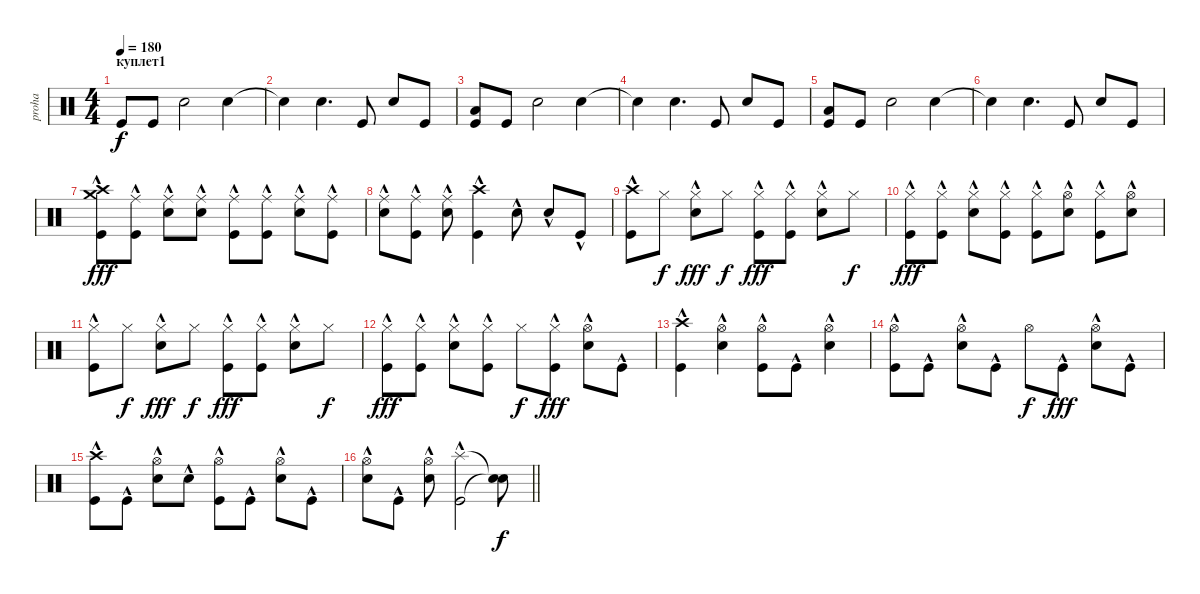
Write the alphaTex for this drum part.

\track ("proha" "proha") {instrument percussion}
\staff {score}
\articulation defaults
\ts (4 4)
\section ("" "куплет1")
\tempo 180
\clef neutral
\ks c "Kick (hit)".8{dy f} "Kick (hit)".8 "Snare (hit) 2".2 "Snare (hit) 2".4
|
"Snare (hit)"{t}.4 "Snare (hit) 2".4{d} "Kick (hit)".8 "Snare (hit) 2".8 "Kick (hit)".8 |
("Kick (hit)" "Low Floor Tom (hit)").8 "Kick (hit)".8 "Snare (hit) 2".2 "Snare (hit) 2".4 |
"Snare (hit)"{t}.4 "Snare (hit) 2".4{d} "Kick (hit)".8 "Snare (hit) 2".8 "Kick (hit)".8 |
("Kick (hit)" "Low Floor Tom (hit)").8 "Kick (hit)".8 "Snare (hit) 2".2 "Snare (hit) 2".4 |
"Snare (hit)"{t}.4 "Snare (hit) 2".4{d} "Kick (hit)".8 "Snare (hit) 2".8 "Kick (hit)".8 |
("Kick (hit)"{hac} "Crash high (hit)" "Crash medium (hit)").8{dy fff} ("Kick (hit)"{hac} "Ride (middle)").8 ("Snare (hit) 2"{hac} "Ride (middle)").8 ("Snare (hit) 2"{hac} "Ride (middle)").8 ("Kick (hit)"{hac} "Ride (middle)").8 ("Kick (hit)"{hac} "Ride (middle)").8 ("Snare (hit) 2"{hac} "Ride (middle)").8 ("Kick (hit)"{hac} "Ride (middle)").8 |
("Snare (hit) 2"{hac} "Ride (middle)").8 ("Kick (hit)"{hac} "Ride (middle)").8 ("Snare (hit) 2"{hac} "Ride (middle)").8 ("Kick (hit)"{hac} "Crash high (hit)").4 "Snare (hit) 2"{hac}.8 "Snare (hit) 2"{hac}.8 "Kick (hit)"{hac}.8 |
("Crash high (hit)" "Kick (hit)"{hac}).8 "Hi-Hat (closed)".8{dy f} ("Hi-Hat (closed)" "Snare (hit) 2"{hac}).8{dy fff} "Hi-Hat (closed)".8{dy f} ("Hi-Hat (closed)" "Kick (hit)"{hac}).8{dy fff} ("Hi-Hat (closed)" "Kick (hit)"{hac}).8 ("Hi-Hat (closed)" "Snare (hit) 2"{hac}).8 "Hi-Hat (closed)".8{dy f} |
("Hi-Hat (closed)" "Kick (hit)"{hac}).8{dy fff} ("Hi-Hat (closed)" "Kick (hit)"{hac}).8 ("Hi-Hat (closed)" "Snare (hit) 2"{hac}).8 ("Hi-Hat (closed)" "Kick (hit)"{hac}).8 ("Hi-Hat (closed)" "Kick (hit)"{hac}).8 ("Hi-Hat (open)" "Snare (hit) 2"{hac}).8 ("Hi-Hat (closed)" "Kick (hit)"{hac}).8 ("Hi-Hat (open)" "Snare (hit) 2"{hac}).8 |
("Hi-Hat (closed)" "Kick (hit)"{hac}).8 "Hi-Hat (closed)".8{dy f} ("Hi-Hat (closed)" "Snare (hit) 2"{hac}).8{dy fff} "Hi-Hat (closed)".8{dy f} ("Hi-Hat (closed)" "Kick (hit)"{hac}).8{dy fff} ("Hi-Hat (closed)" "Kick (hit)"{hac}).8 ("Hi-Hat (closed)" "Snare (hit) 2"{hac}).8 "Hi-Hat (closed)".8{dy f} |
("Hi-Hat (closed)" "Kick (hit)"{hac}).8{dy fff} ("Hi-Hat (closed)" "Kick (hit)"{hac}).8 ("Hi-Hat (closed)" "Snare (hit) 2"{hac}).8 ("Hi-Hat (closed)" "Kick (hit)"{hac}).8 "Hi-Hat (closed)".8{dy f} ("Hi-Hat (closed)" "Kick (hit)"{hac}).8{dy fff} ("Hi-Hat (open)" "Snare (hit) 2"{hac}).8 "Kick (hit)"{hac}.8 |
("Kick (hit)"{hac} "Crash high (hit)").4 ("Snare (hit) 2"{hac} "Hi-Hat (open)").4 ("Kick (hit)"{hac} "Hi-Hat (open)").8 "Kick (hit)"{hac}.8 ("Snare (hit) 2"{hac} "Hi-Hat (open)").4 |
("Kick (hit)"{hac} "Hi-Hat (open)").8 "Kick (hit)"{hac}.8 ("Snare (hit) 2"{hac} "Hi-Hat (open)").8 "Kick (hit)"{hac}.8 "Hi-Hat (open)".8{dy f} "Kick (hit)"{hac}.8{dy fff} ("Snare (hit) 2"{hac} "Hi-Hat (open)").8 "Kick (hit)"{hac}.8 |
("Kick (hit)"{hac} "Crash high (hit)").8 "Kick (hit)"{hac}.8 ("Snare (hit) 2"{hac} "Hi-Hat (open)").8 "Snare (hit) 2"{hac}.8 ("Kick (hit)"{hac} "Hi-Hat (open)").8 "Kick (hit)"{hac}.8 ("Snare (hit) 2"{hac} "Hi-Hat (open)").8 "Kick (hit)"{hac}.8 |
\barLineRight lightlight
("Snare (hit) 2"{hac} "Hi-Hat (open)").8 "Kick (hit)"{hac}.8 ("Snare (hit) 2"{hac} "Hi-Hat (open)").8 ("Kick (hit)"{hac} "Splash (hit)").2 ("Snare (hit)"{t} "Snare (hit)"{t}).8{dy f}
